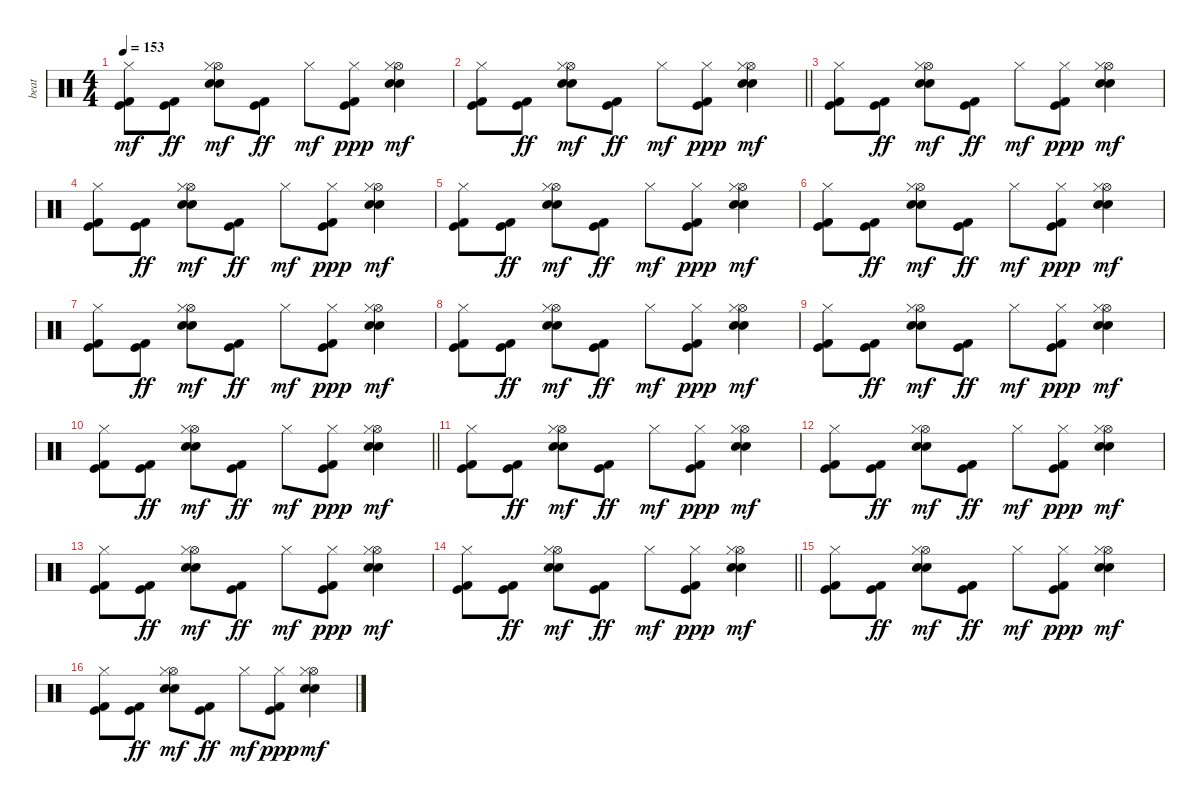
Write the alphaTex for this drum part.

\track ("beat" "beat") {instrument percussion}
\staff {score}
\articulation defaults
\ts (4 4)
\tempo 153
\clef neutral
\ks c
("Kick (hit)" "Kick (hit) 2" "Hi-Hat (closed)").8{dy mf} ("Kick (hit)" "Kick (hit) 2").8{dy ff} ("Snare (hit) 2" "Electric Snare (hit)" "Hi-Hat (open)" "Hi-Hat (closed)").8{dy mf} ("Kick (hit)" "Kick (hit) 2").8{dy ff} "Hi-Hat (closed)".8{dy mf} ("Kick (hit)" "Kick (hit) 2" "Hi-Hat (closed)").8{dy ppp} ("Snare (hit) 2" "Electric Snare (hit)" "Hi-Hat (open)" "Hi-Hat (closed)").4{dy mf} |
\barLineRight lightlight
("Kick (hit)" "Kick (hit) 2" "Hi-Hat (closed)").8 ("Kick (hit)" "Kick (hit) 2").8{dy ff} ("Snare (hit) 2" "Electric Snare (hit)" "Hi-Hat (open)" "Hi-Hat (closed)").8{dy mf} ("Kick (hit)" "Kick (hit) 2").8{dy ff} "Hi-Hat (closed)".8{dy mf} ("Kick (hit)" "Kick (hit) 2" "Hi-Hat (closed)").8{dy ppp} ("Snare (hit) 2" "Electric Snare (hit)" "Hi-Hat (open)" "Hi-Hat (closed)").4{dy mf} |
("Kick (hit)" "Kick (hit) 2" "Hi-Hat (closed)").8 ("Kick (hit)" "Kick (hit) 2").8{dy ff} ("Snare (hit) 2" "Electric Snare (hit)" "Hi-Hat (open)" "Hi-Hat (closed)").8{dy mf} ("Kick (hit)" "Kick (hit) 2").8{dy ff} "Hi-Hat (closed)".8{dy mf} ("Kick (hit)" "Kick (hit) 2" "Hi-Hat (closed)").8{dy ppp} ("Snare (hit) 2" "Electric Snare (hit)" "Hi-Hat (open)" "Hi-Hat (closed)").4{dy mf} |
("Kick (hit)" "Kick (hit) 2" "Hi-Hat (closed)").8 ("Kick (hit)" "Kick (hit) 2").8{dy ff} ("Snare (hit) 2" "Electric Snare (hit)" "Hi-Hat (open)" "Hi-Hat (closed)").8{dy mf} ("Kick (hit)" "Kick (hit) 2").8{dy ff} "Hi-Hat (closed)".8{dy mf} ("Kick (hit)" "Kick (hit) 2" "Hi-Hat (closed)").8{dy ppp} ("Snare (hit) 2" "Electric Snare (hit)" "Hi-Hat (open)" "Hi-Hat (closed)").4{dy mf} |
("Kick (hit)" "Kick (hit) 2" "Hi-Hat (closed)").8 ("Kick (hit)" "Kick (hit) 2").8{dy ff} ("Snare (hit) 2" "Electric Snare (hit)" "Hi-Hat (open)" "Hi-Hat (closed)").8{dy mf} ("Kick (hit)" "Kick (hit) 2").8{dy ff} "Hi-Hat (closed)".8{dy mf} ("Kick (hit)" "Kick (hit) 2" "Hi-Hat (closed)").8{dy ppp} ("Snare (hit) 2" "Electric Snare (hit)" "Hi-Hat (open)" "Hi-Hat (closed)").4{dy mf} |
("Kick (hit)" "Kick (hit) 2" "Hi-Hat (closed)").8 ("Kick (hit)" "Kick (hit) 2").8{dy ff} ("Snare (hit) 2" "Electric Snare (hit)" "Hi-Hat (open)" "Hi-Hat (closed)").8{dy mf} ("Kick (hit)" "Kick (hit) 2").8{dy ff} "Hi-Hat (closed)".8{dy mf} ("Kick (hit)" "Kick (hit) 2" "Hi-Hat (closed)").8{dy ppp} ("Snare (hit) 2" "Electric Snare (hit)" "Hi-Hat (open)" "Hi-Hat (closed)").4{dy mf} |
("Kick (hit)" "Kick (hit) 2" "Hi-Hat (closed)").8 ("Kick (hit)" "Kick (hit) 2").8{dy ff} ("Snare (hit) 2" "Electric Snare (hit)" "Hi-Hat (open)" "Hi-Hat (closed)").8{dy mf} ("Kick (hit)" "Kick (hit) 2").8{dy ff} "Hi-Hat (closed)".8{dy mf} ("Kick (hit)" "Kick (hit) 2" "Hi-Hat (closed)").8{dy ppp} ("Snare (hit) 2" "Electric Snare (hit)" "Hi-Hat (open)" "Hi-Hat (closed)").4{dy mf} |
("Kick (hit)" "Kick (hit) 2" "Hi-Hat (closed)").8 ("Kick (hit)" "Kick (hit) 2").8{dy ff} ("Snare (hit) 2" "Electric Snare (hit)" "Hi-Hat (open)" "Hi-Hat (closed)").8{dy mf} ("Kick (hit)" "Kick (hit) 2").8{dy ff} "Hi-Hat (closed)".8{dy mf} ("Kick (hit)" "Kick (hit) 2" "Hi-Hat (closed)").8{dy ppp} ("Snare (hit) 2" "Electric Snare (hit)" "Hi-Hat (open)" "Hi-Hat (closed)").4{dy mf} |
("Kick (hit)" "Kick (hit) 2" "Hi-Hat (closed)").8 ("Kick (hit)" "Kick (hit) 2").8{dy ff} ("Snare (hit) 2" "Electric Snare (hit)" "Hi-Hat (open)" "Hi-Hat (closed)").8{dy mf} ("Kick (hit)" "Kick (hit) 2").8{dy ff} "Hi-Hat (closed)".8{dy mf} ("Kick (hit)" "Kick (hit) 2" "Hi-Hat (closed)").8{dy ppp} ("Snare (hit) 2" "Electric Snare (hit)" "Hi-Hat (open)" "Hi-Hat (closed)").4{dy mf} |
\barLineRight lightlight
("Kick (hit)" "Kick (hit) 2" "Hi-Hat (closed)").8 ("Kick (hit)" "Kick (hit) 2").8{dy ff} ("Snare (hit) 2" "Electric Snare (hit)" "Hi-Hat (open)" "Hi-Hat (closed)").8{dy mf} ("Kick (hit)" "Kick (hit) 2").8{dy ff} "Hi-Hat (closed)".8{dy mf} ("Kick (hit)" "Kick (hit) 2" "Hi-Hat (closed)").8{dy ppp} ("Snare (hit) 2" "Electric Snare (hit)" "Hi-Hat (open)" "Hi-Hat (closed)").4{dy mf} |
("Kick (hit)" "Kick (hit) 2" "Hi-Hat (closed)").8 ("Kick (hit)" "Kick (hit) 2").8{dy ff} ("Snare (hit) 2" "Electric Snare (hit)" "Hi-Hat (open)" "Hi-Hat (closed)").8{dy mf} ("Kick (hit)" "Kick (hit) 2").8{dy ff} "Hi-Hat (closed)".8{dy mf} ("Kick (hit)" "Kick (hit) 2" "Hi-Hat (closed)").8{dy ppp} ("Snare (hit) 2" "Electric Snare (hit)" "Hi-Hat (open)" "Hi-Hat (closed)").4{dy mf} |
("Kick (hit)" "Kick (hit) 2" "Hi-Hat (closed)").8 ("Kick (hit)" "Kick (hit) 2").8{dy ff} ("Snare (hit) 2" "Electric Snare (hit)" "Hi-Hat (open)" "Hi-Hat (closed)").8{dy mf} ("Kick (hit)" "Kick (hit) 2").8{dy ff} "Hi-Hat (closed)".8{dy mf} ("Kick (hit)" "Kick (hit) 2" "Hi-Hat (closed)").8{dy ppp} ("Snare (hit) 2" "Electric Snare (hit)" "Hi-Hat (open)" "Hi-Hat (closed)").4{dy mf} |
("Kick (hit)" "Kick (hit) 2" "Hi-Hat (closed)").8 ("Kick (hit)" "Kick (hit) 2").8{dy ff} ("Snare (hit) 2" "Electric Snare (hit)" "Hi-Hat (open)" "Hi-Hat (closed)").8{dy mf} ("Kick (hit)" "Kick (hit) 2").8{dy ff} "Hi-Hat (closed)".8{dy mf} ("Kick (hit)" "Kick (hit) 2" "Hi-Hat (closed)").8{dy ppp} ("Snare (hit) 2" "Electric Snare (hit)" "Hi-Hat (open)" "Hi-Hat (closed)").4{dy mf} |
\barLineRight lightlight
("Kick (hit)" "Kick (hit) 2" "Hi-Hat (closed)").8 ("Kick (hit)" "Kick (hit) 2").8{dy ff} ("Snare (hit) 2" "Electric Snare (hit)" "Hi-Hat (open)" "Hi-Hat (closed)").8{dy mf} ("Kick (hit)" "Kick (hit) 2").8{dy ff} "Hi-Hat (closed)".8{dy mf} ("Kick (hit)" "Kick (hit) 2" "Hi-Hat (closed)").8{dy ppp} ("Snare (hit) 2" "Electric Snare (hit)" "Hi-Hat (open)" "Hi-Hat (closed)").4{dy mf} |
("Kick (hit)" "Kick (hit) 2" "Hi-Hat (closed)").8 ("Kick (hit)" "Kick (hit) 2").8{dy ff} ("Snare (hit) 2" "Electric Snare (hit)" "Hi-Hat (open)" "Hi-Hat (closed)").8{dy mf} ("Kick (hit)" "Kick (hit) 2").8{dy ff} "Hi-Hat (closed)".8{dy mf} ("Kick (hit)" "Kick (hit) 2" "Hi-Hat (closed)").8{dy ppp} ("Snare (hit) 2" "Electric Snare (hit)" "Hi-Hat (open)" "Hi-Hat (closed)").4{dy mf} |
("Kick (hit)" "Kick (hit) 2" "Hi-Hat (closed)").8 ("Kick (hit)" "Kick (hit) 2").8{dy ff} ("Snare (hit) 2" "Electric Snare (hit)" "Hi-Hat (open)" "Hi-Hat (closed)").8{dy mf} ("Kick (hit)" "Kick (hit) 2").8{dy ff} "Hi-Hat (closed)".8{dy mf} ("Kick (hit)" "Kick (hit) 2" "Hi-Hat (closed)").8{dy ppp} ("Snare (hit) 2" "Electric Snare (hit)" "Hi-Hat (open)" "Hi-Hat (closed)").4{dy mf}
